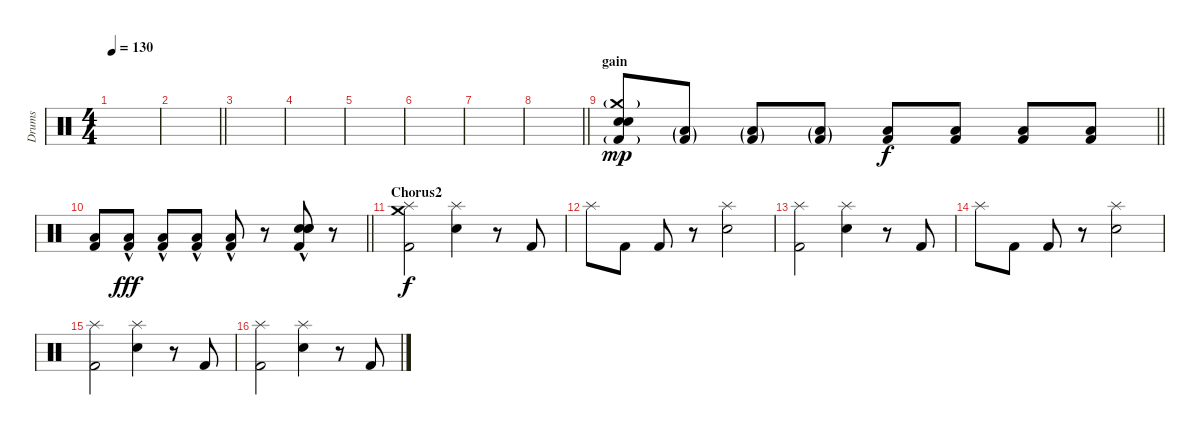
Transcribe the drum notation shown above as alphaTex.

\track ("Drums" "Drums") {instrument percussion}
\staff {score}
\articulation defaults
\ts (4 4)
\tempo 130
\clef neutral
\ks c
|
\barLineRight lightlight
|
|
|
|
|
|
\barLineRight lightlight
|
\section ("" "gain")
\barLineRight lightlight
("Kick (hit) 2"{g} "Crash medium (hit)"{g} "Electric Snare (hit)" "Electric Snare (hit)").8{dy mp volume 16} ("Kick (hit) 2"{g} "Low Floor Tom (hit)"{g}).8 ("Kick (hit) 2"{g} "Low Floor Tom (hit)"{g}).8 ("Kick (hit) 2"{g} "Low Floor Tom (hit)"{g}).8 ("Kick (hit) 2" "Low Floor Tom (hit)").8{dy f} ("Kick (hit) 2" "Low Floor Tom (hit)").8 ("Kick (hit) 2" "Low Floor Tom (hit)").8 ("Kick (hit) 2" "Low Floor Tom (hit)").8 |
\barLineRight lightlight
("Kick (hit) 2" "Low Floor Tom (hit)").8 ("Kick (hit) 2"{hac} "Low Floor Tom (hit)"{hac}).8{dy fff} ("Kick (hit) 2"{hac} "Low Floor Tom (hit)"{hac}).8 ("Kick (hit) 2"{hac} "Low Floor Tom (hit)"{hac}).8 ("Kick (hit) 2"{hac} "Low Floor Tom (hit)"{hac}).8 r.8 ("Kick (hit) 2"{hac} "Electric Snare (hit)"{hac} "Electric Snare (hit)"{hac} "Electric Snare (hit)"{hac}).8 r.8 |
\section ("" "Chorus2")
("Crash medium (hit)" "Splash (hit)" "Kick (hit) 2").2{dy f} ("Splash (hit)" "Electric Snare (hit)").4 r.8 "Kick (hit) 2".8 |
"Splash (hit)".8 "Kick (hit) 2".8 "Kick (hit) 2".8 r.8 ("Splash (hit)" "Electric Snare (hit)").2 |
("Splash (hit)" "Kick (hit) 2").2 ("Splash (hit)" "Electric Snare (hit)").4 r.8 "Kick (hit) 2".8 |
"Splash (hit)".8 "Kick (hit) 2".8 "Kick (hit) 2".8 r.8 ("Splash (hit)" "Electric Snare (hit)").2 |
("Splash (hit)" "Kick (hit) 2").2 ("Splash (hit)" "Electric Snare (hit)").4 r.8 "Kick (hit) 2".8 |
("Splash (hit)" "Kick (hit) 2").2 ("Splash (hit)" "Electric Snare (hit)").4 r.8 "Kick (hit) 2".8
